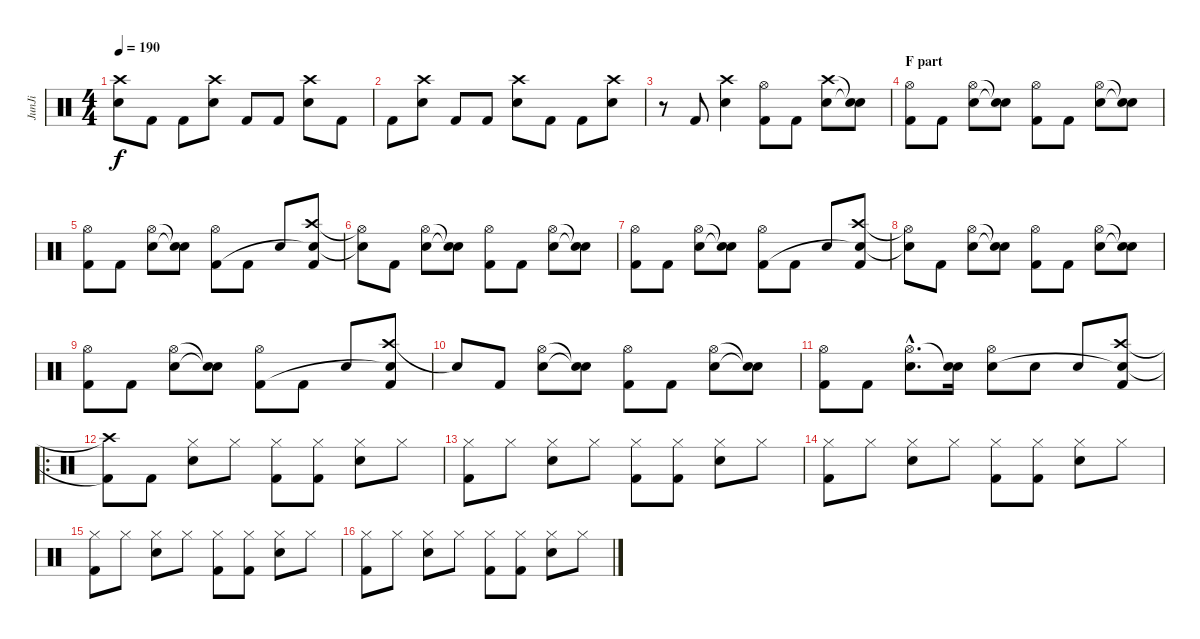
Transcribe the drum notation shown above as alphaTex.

\track ("JunJi" "JunJi") {instrument percussion}
\staff {score}
\articulation defaults
\ts (4 4)
\tempo 190
\clef neutral
\ks c
("Snare (hit) 2" "Crash high (hit)").8{dy f} "Kick (hit) 2".8 "Kick (hit) 2".8 ("Crash high (hit)" "Snare (hit) 2").8 "Kick (hit) 2".8 "Kick (hit) 2".8 ("Crash high (hit)" "Snare (hit) 2").8 "Kick (hit) 2".8 |
"Kick (hit) 2".8 ("Crash high (hit)" "Snare (hit) 2").8 "Kick (hit) 2".8 "Kick (hit) 2".8 ("Crash high (hit)" "Snare (hit) 2").8 "Kick (hit) 2".8 "Kick (hit) 2".8 ("Crash high (hit)" "Snare (hit) 2").8 |
r.8 "Kick (hit) 2".8 ("Crash high (hit)" "Snare (hit) 2").4 ("Hi-Hat (open)" "Kick (hit) 2").8 "Kick (hit) 2".8 ("Crash high (hit)" "Snare (hit) 2").8 ("Snare (hit)"{t} "Snare (hit)"{t}).8 |
\section ("" "F part")
("Hi-Hat (open)" "Kick (hit) 2").8 "Kick (hit) 2".8 ("Hi-Hat (open)" "Snare (hit) 2").8 ("Snare (hit)"{t} "Snare (hit)"{t}).8 ("Hi-Hat (open)" "Kick (hit) 2").8 "Kick (hit) 2".8 ("Hi-Hat (open)" "Snare (hit) 2").8 ("Snare (hit)"{t} "Snare (hit)"{t}).8 |
("Hi-Hat (open)" "Kick (hit) 2").8 "Kick (hit) 2".8 ("Hi-Hat (open)" "Snare (hit) 2").8 ("Snare (hit)"{t} "Snare (hit)"{t}).8 ("Hi-Hat (open)" "Kick (hit) 2").8 "Kick (hit) 2".8 "Snare (hit) 2".8 ("Crash high (hit)" "Snare (hit)"{t} "Kick (hit) 2").8 |
("Hi-Hat (open)"{t} "Snare (hit)"{t}).8 "Kick (hit) 2".8 ("Hi-Hat (open)" "Snare (hit) 2").8 ("Snare (hit)"{t} "Snare (hit)"{t}).8 ("Hi-Hat (open)" "Kick (hit) 2").8 "Kick (hit) 2".8 ("Hi-Hat (open)" "Snare (hit) 2").8 ("Snare (hit)"{t} "Snare (hit)"{t}).8 |
("Hi-Hat (open)" "Kick (hit) 2").8 "Kick (hit) 2".8 ("Hi-Hat (open)" "Snare (hit) 2").8 ("Snare (hit)"{t} "Snare (hit)"{t}).8 ("Hi-Hat (open)" "Kick (hit) 2").8 "Kick (hit) 2".8 "Snare (hit) 2".8 ("Crash high (hit)" "Snare (hit)"{t} "Kick (hit) 2").8 |
("Hi-Hat (open)"{t} "Snare (hit)"{t}).8 "Kick (hit) 2".8 ("Hi-Hat (open)" "Snare (hit) 2").8 ("Snare (hit)"{t} "Snare (hit)"{t}).8 ("Hi-Hat (open)" "Kick (hit) 2").8 "Kick (hit) 2".8 ("Hi-Hat (open)" "Snare (hit) 2").8 ("Snare (hit)"{t} "Snare (hit)"{t}).8 |
("Hi-Hat (open)" "Kick (hit) 2").8 "Kick (hit) 2".8 ("Hi-Hat (open)" "Snare (hit) 2").8 ("Snare (hit)"{t} "Snare (hit)"{t}).8 ("Hi-Hat (open)" "Kick (hit) 2").8 "Kick (hit) 2".8 "Snare (hit) 2".8 ("Crash high (hit)" "Snare (hit)"{t} "Kick (hit) 2").8 |
"Snare (hit)"{t}.8 "Kick (hit) 2".8 ("Hi-Hat (open)" "Snare (hit) 2").8 ("Snare (hit)"{t} "Snare (hit)"{t}).8 ("Hi-Hat (open)" "Kick (hit) 2").8 "Kick (hit) 2".8 ("Hi-Hat (open)" "Snare (hit) 2").8 ("Snare (hit)"{t} "Snare (hit)"{t}).8 |
("Hi-Hat (open)" "Kick (hit) 2").8 "Kick (hit) 2".8 ("Hi-Hat (open)"{hac} "Snare (hit) 2"{hac}).8{d} ("Snare (hit)"{t} "Snare (hit) 2").16 ("Hi-Hat (open)" "Snare (hit) 2").8 "Snare (hit) 2".8 "Snare (hit) 2".8 ("Crash high (hit)" "Snare (hit)"{t} "Kick (hit) 2").8 |
\ro
("Crash high (hit)"{t} "Kick (hit) 2"{t}).8 "Kick (hit) 2".8 ("Hi-Hat (closed)" "Snare (hit) 2").8 "Hi-Hat (closed)".8 ("Hi-Hat (closed)" "Kick (hit) 2").8 ("Hi-Hat (closed)" "Kick (hit) 2").8 ("Hi-Hat (closed)" "Snare (hit) 2").8 "Hi-Hat (closed)".8 |
("Hi-Hat (closed)" "Kick (hit) 2").8 "Hi-Hat (closed)".8 ("Hi-Hat (closed)" "Snare (hit) 2").8 "Hi-Hat (closed)".8 ("Hi-Hat (closed)" "Kick (hit) 2").8 ("Hi-Hat (closed)" "Kick (hit) 2").8 ("Hi-Hat (closed)" "Snare (hit) 2").8 "Hi-Hat (closed)".8 |
("Hi-Hat (closed)" "Kick (hit) 2").8 "Hi-Hat (closed)".8 ("Hi-Hat (closed)" "Snare (hit) 2").8 "Hi-Hat (closed)".8 ("Hi-Hat (closed)" "Kick (hit) 2").8 ("Hi-Hat (closed)" "Kick (hit) 2").8 ("Hi-Hat (closed)" "Snare (hit) 2").8 "Hi-Hat (closed)".8 |
("Hi-Hat (closed)" "Kick (hit) 2").8 "Hi-Hat (closed)".8 ("Hi-Hat (closed)" "Snare (hit) 2").8 "Hi-Hat (closed)".8 ("Hi-Hat (closed)" "Kick (hit) 2").8 ("Hi-Hat (closed)" "Kick (hit) 2").8 ("Hi-Hat (closed)" "Snare (hit) 2").8 "Hi-Hat (closed)".8 |
("Hi-Hat (closed)" "Kick (hit) 2").8 "Hi-Hat (closed)".8 ("Hi-Hat (closed)" "Snare (hit) 2").8 "Hi-Hat (closed)".8 ("Hi-Hat (closed)" "Kick (hit) 2").8 ("Hi-Hat (closed)" "Kick (hit) 2").8 ("Hi-Hat (closed)" "Snare (hit) 2").8 "Hi-Hat (closed)".8
